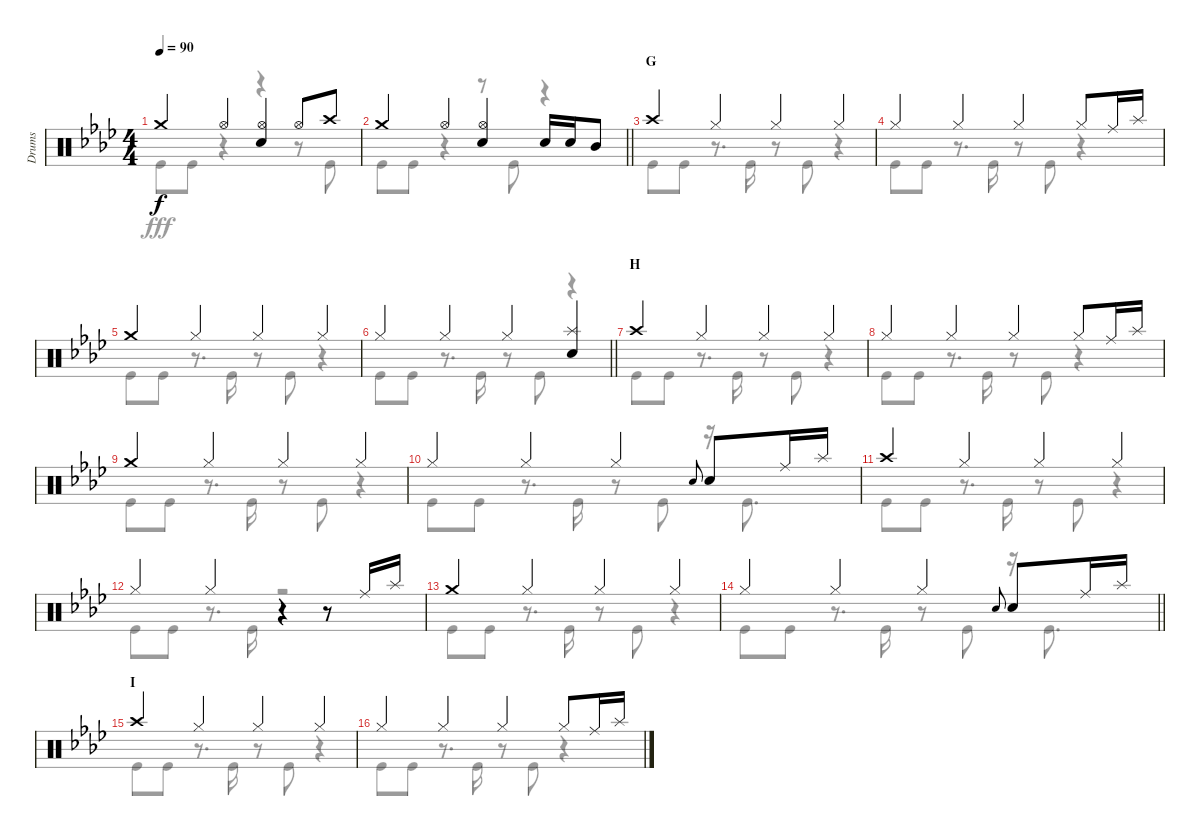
\track ("Drums" "Drums") {instrument percussion}
\staff {score}
\articulation defaults
\voice
\ts (4 4)
\tempo 90
\clef neutral
\ks ab "Crash medium (hit)".4{dy f} "Hi-Hat (open)".4
("Hi-Hat (open)" "Snare (hit) 2").4 "Hi-Hat (open)".8 "Crash high (hit)".8 |
\barLineRight lightlight "Crash medium (hit)".4 "Hi-Hat (open)".4
("Hi-Hat (open)" "Snare (hit) 2").4 "Snare (hit) 2".16 "Snare (hit) 2".16 "Mid Tom (hit)".8 |
\section ("" "G")
"Crash high (hit)".4 "Hi-Hat (closed)".4 "Hi-Hat (closed)".4 "Hi-Hat (closed)".4 |
"Hi-Hat (closed)".4 "Hi-Hat (closed)".4 "Hi-Hat (closed)".4 "Hi-Hat (closed)".8 "Ride (middle)".16 "Splash (hit)".16 |
"Crash medium (hit)".4 "Hi-Hat (closed)".4 "Hi-Hat (closed)".4 "Hi-Hat (closed)".4 |
\barLineRight lightlight "Hi-Hat (closed)".4 "Hi-Hat (closed)".4 "Hi-Hat (closed)".4
("Splash (hit)" "Snare (hit) 2").4 |
\section ("" "H")
"Crash high (hit)".4 "Hi-Hat (closed)".4 "Hi-Hat (closed)".4 "Hi-Hat (closed)".4 |
"Hi-Hat (closed)".4 "Hi-Hat (closed)".4 "Hi-Hat (closed)".4 "Hi-Hat (closed)".8 "Ride (middle)".16 "Splash (hit)".16 |
"Crash medium (hit)".4 "Hi-Hat (closed)".4 "Hi-Hat (closed)".4 "Hi-Hat (closed)".4 |
"Hi-Hat (closed)".4 "Hi-Hat (closed)".4 "Hi-Hat (closed)".4 "Snare (hit) 2".8{gr onbeat} "Snare (hit) 2".8 "Ride (middle)".16 "Splash (hit)".16 |
"Crash high (hit)".4 "Hi-Hat (closed)".4 "Hi-Hat (closed)".4 "Hi-Hat (closed)".4 |
"Hi-Hat (closed)".4 "Hi-Hat (closed)".4 r.4 r.8 "Ride (middle)".16 "Splash (hit)".16 |
"Crash medium (hit)".4 "Hi-Hat (closed)".4 "Hi-Hat (closed)".4 "Hi-Hat (closed)".4 |
\barLineRight lightlight "Hi-Hat (closed)".4 "Hi-Hat (closed)".4 "Hi-Hat (closed)".4 "Snare (hit) 2".8{gr onbeat} "Snare (hit) 2".8 "Ride (middle)".16 "Splash (hit)".16
|
\section ("" "I")
"Crash high (hit)".4 "Hi-Hat (closed)".4 "Hi-Hat (closed)".4 "Hi-Hat (closed)".4 |
"Hi-Hat (closed)".4 "Hi-Hat (closed)".4 "Hi-Hat (closed)".4 "Hi-Hat (closed)".8 "Ride (middle)".16 "Splash (hit)".16
\voice
\clef neutral
\ottava regular
\simile none
\ks ab "Kick (hit)".8{dy fff} "Kick (hit)".8
r.4 r.4 r.8 "Kick (hit)".8 |
\barLineRight lightlight "Kick (hit)".8 "Kick (hit)".8
r.4 r.8 "Kick (hit)".8 r.4 |
"Kick (hit)".8 "Kick (hit)".8 r.8{d} "Kick (hit)".16 r.8 "Kick (hit)".8 r.4 |
"Kick (hit)".8 "Kick (hit)".8 r.8{d} "Kick (hit)".16 r.8 "Kick (hit)".8 r.4 |
"Kick (hit)".8 "Kick (hit)".8 r.8{d} "Kick (hit)".16 r.8 "Kick (hit)".8 r.4 |
\barLineRight lightlight "Kick (hit)".8 "Kick (hit)".8
r.8{d} "Kick (hit)".16 r.8 "Kick (hit)".8 r.4 |
"Kick (hit)".8 "Kick (hit)".8 r.8{d} "Kick (hit)".16 r.8 "Kick (hit)".8 r.4 |
"Kick (hit)".8 "Kick (hit)".8 r.8{d} "Kick (hit)".16 r.8 "Kick (hit)".8 r.4 |
"Kick (hit)".8 "Kick (hit)".8 r.8{d} "Kick (hit)".16 r.8 "Kick (hit)".8 r.4 |
"Kick (hit)".8 "Kick (hit)".8 r.8{d} "Kick (hit)".16 r.8 "Kick (hit)".8 r.16 "Kick (hit)".8{d} |
"Kick (hit)".8 "Kick (hit)".8 r.8{d} "Kick (hit)".16 r.8 "Kick (hit)".8 r.4 |
"Kick (hit)".8 "Kick (hit)".8 r.8{d} "Kick (hit)".16 r.2 |
"Kick (hit)".8 "Kick (hit)".8 r.8{d} "Kick (hit)".16 r.8 "Kick (hit)".8 r.4 |
\barLineRight lightlight "Kick (hit)".8 "Kick (hit)".8
r.8{d} "Kick (hit)".16 r.8 "Kick (hit)".8 r.16 "Kick (hit)".8{d} |
"Kick (hit)".8 "Kick (hit)".8 r.8{d} "Kick (hit)".16 r.8 "Kick (hit)".8 r.4 |
"Kick (hit)".8 "Kick (hit)".8 r.8{d} "Kick (hit)".16 r.8 "Kick (hit)".8 r.4
